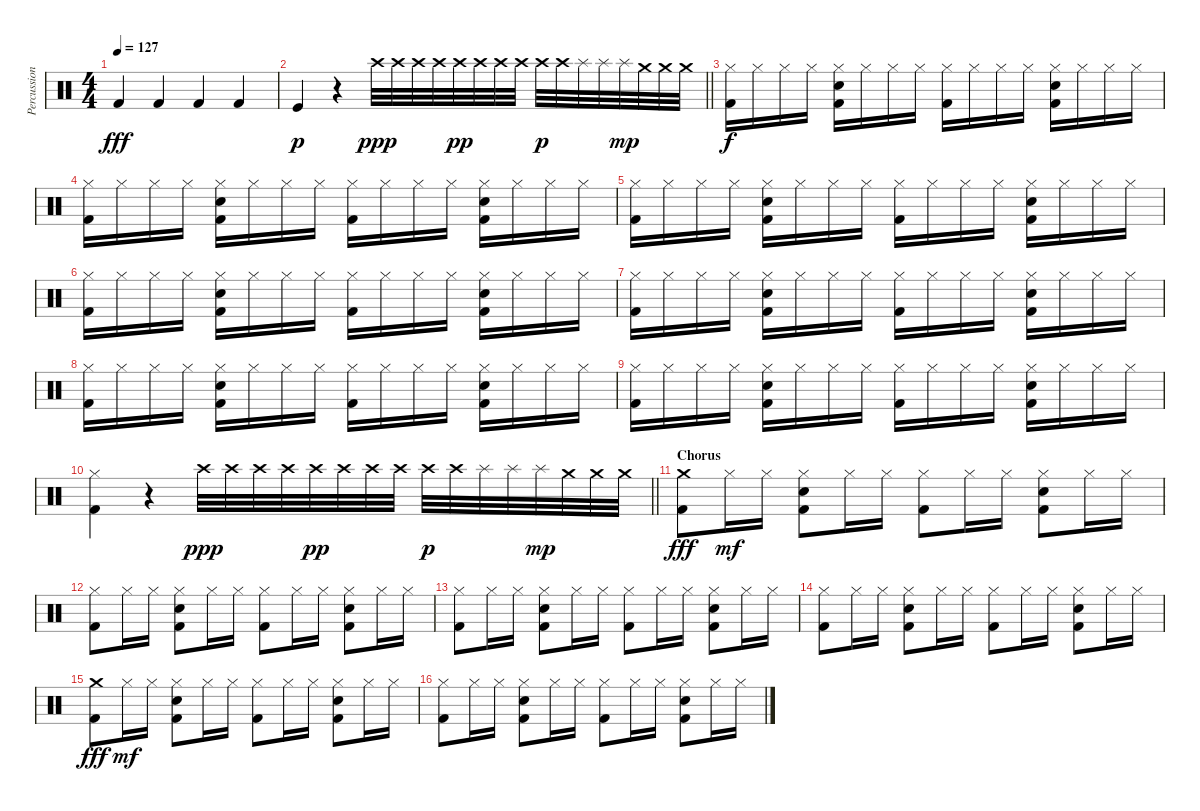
\track ("Percussion" "Percussion") {instrument percussion}
\staff {score}
\articulation defaults
\ts (4 4)
\tempo 127
\clef neutral
\ks c "Kick (hit) 2".4{dy fff} "Kick (hit) 2".4 "Kick (hit) 2".4 "Kick (hit) 2".4
|
\barLineRight lightlight "Kick (hit)".4{dy p}
r.4 "Crash high (hit)".32{dy ppp} "Crash high (hit)".32 "Crash high (hit)".32 "Crash high (hit)".32 "Crash high (hit)".32{dy pp} "Crash high (hit)".32 "Crash high (hit)".32 "Crash high (hit)".32 "Crash high (hit)".32{dy p} "Crash high (hit)".32 "Splash (hit)".32 "Splash (hit)".32 "Splash (hit)".32{dy mp} "Crash medium (hit)".32 "Crash medium (hit)".32 "Crash medium (hit)".32 |
("Hi-Hat (closed)" "Kick (hit) 2").16{dy f} "Hi-Hat (closed)".16 "Hi-Hat (closed)".16 "Hi-Hat (closed)".16 ("Hi-Hat (closed)" "Snare (hit) 2" "Kick (hit) 2").16 "Hi-Hat (closed)".16 "Hi-Hat (closed)".16 "Hi-Hat (closed)".16 ("Hi-Hat (closed)" "Kick (hit) 2").16 "Hi-Hat (closed)".16 "Hi-Hat (closed)".16 "Hi-Hat (closed)".16 ("Hi-Hat (closed)" "Snare (hit) 2" "Kick (hit) 2").16 "Hi-Hat (closed)".16 "Hi-Hat (closed)".16 "Hi-Hat (closed)".16 |
("Hi-Hat (closed)" "Kick (hit) 2").16 "Hi-Hat (closed)".16 "Hi-Hat (closed)".16 "Hi-Hat (closed)".16 ("Hi-Hat (closed)" "Snare (hit) 2" "Kick (hit) 2").16 "Hi-Hat (closed)".16 "Hi-Hat (closed)".16 "Hi-Hat (closed)".16 ("Hi-Hat (closed)" "Kick (hit) 2").16 "Hi-Hat (closed)".16 "Hi-Hat (closed)".16 "Hi-Hat (closed)".16 ("Hi-Hat (closed)" "Snare (hit) 2" "Kick (hit) 2").16 "Hi-Hat (closed)".16 "Hi-Hat (closed)".16 "Hi-Hat (closed)".16 |
("Hi-Hat (closed)" "Kick (hit) 2").16 "Hi-Hat (closed)".16 "Hi-Hat (closed)".16 "Hi-Hat (closed)".16 ("Hi-Hat (closed)" "Snare (hit) 2" "Kick (hit) 2").16 "Hi-Hat (closed)".16 "Hi-Hat (closed)".16 "Hi-Hat (closed)".16 ("Hi-Hat (closed)" "Kick (hit) 2").16 "Hi-Hat (closed)".16 "Hi-Hat (closed)".16 "Hi-Hat (closed)".16 ("Hi-Hat (closed)" "Snare (hit) 2" "Kick (hit) 2").16 "Hi-Hat (closed)".16 "Hi-Hat (closed)".16 "Hi-Hat (closed)".16 |
("Hi-Hat (closed)" "Kick (hit) 2").16 "Hi-Hat (closed)".16 "Hi-Hat (closed)".16 "Hi-Hat (closed)".16 ("Hi-Hat (closed)" "Snare (hit) 2" "Kick (hit) 2").16 "Hi-Hat (closed)".16 "Hi-Hat (closed)".16 "Hi-Hat (closed)".16 ("Hi-Hat (closed)" "Kick (hit) 2").16 "Hi-Hat (closed)".16 "Hi-Hat (closed)".16 "Hi-Hat (closed)".16 ("Hi-Hat (closed)" "Snare (hit) 2" "Kick (hit) 2").16 "Hi-Hat (closed)".16 "Hi-Hat (closed)".16 "Hi-Hat (closed)".16 |
("Hi-Hat (closed)" "Kick (hit) 2").16 "Hi-Hat (closed)".16 "Hi-Hat (closed)".16 "Hi-Hat (closed)".16 ("Hi-Hat (closed)" "Snare (hit) 2" "Kick (hit) 2").16 "Hi-Hat (closed)".16 "Hi-Hat (closed)".16 "Hi-Hat (closed)".16 ("Hi-Hat (closed)" "Kick (hit) 2").16 "Hi-Hat (closed)".16 "Hi-Hat (closed)".16 "Hi-Hat (closed)".16 ("Hi-Hat (closed)" "Snare (hit) 2" "Kick (hit) 2").16 "Hi-Hat (closed)".16 "Hi-Hat (closed)".16 "Hi-Hat (closed)".16 |
("Hi-Hat (closed)" "Kick (hit) 2").16 "Hi-Hat (closed)".16 "Hi-Hat (closed)".16 "Hi-Hat (closed)".16 ("Hi-Hat (closed)" "Snare (hit) 2" "Kick (hit) 2").16 "Hi-Hat (closed)".16 "Hi-Hat (closed)".16 "Hi-Hat (closed)".16 ("Hi-Hat (closed)" "Kick (hit) 2").16 "Hi-Hat (closed)".16 "Hi-Hat (closed)".16 "Hi-Hat (closed)".16 ("Hi-Hat (closed)" "Snare (hit) 2" "Kick (hit) 2").16 "Hi-Hat (closed)".16 "Hi-Hat (closed)".16 "Hi-Hat (closed)".16 |
("Hi-Hat (closed)" "Kick (hit) 2").16 "Hi-Hat (closed)".16 "Hi-Hat (closed)".16 "Hi-Hat (closed)".16 ("Hi-Hat (closed)" "Snare (hit) 2" "Kick (hit) 2").16 "Hi-Hat (closed)".16 "Hi-Hat (closed)".16 "Hi-Hat (closed)".16 ("Hi-Hat (closed)" "Kick (hit) 2").16 "Hi-Hat (closed)".16 "Hi-Hat (closed)".16 "Hi-Hat (closed)".16 ("Hi-Hat (closed)" "Snare (hit) 2" "Kick (hit) 2").16 "Hi-Hat (closed)".16 "Hi-Hat (closed)".16 "Hi-Hat (closed)".16 |
\barLineRight lightlight
("Hi-Hat (closed)" "Kick (hit) 2").4 r.4 "Crash high (hit)".32{dy ppp} "Crash high (hit)".32 "Crash high (hit)".32 "Crash high (hit)".32 "Crash high (hit)".32{dy pp} "Crash high (hit)".32 "Crash high (hit)".32 "Crash high (hit)".32 "Crash high (hit)".32{dy p} "Crash high (hit)".32 "Splash (hit)".32 "Splash (hit)".32 "Splash (hit)".32{dy mp} "Crash medium (hit)".32 "Crash medium (hit)".32 "Crash medium (hit)".32 |
\section ("" "Chorus")
("Crash medium (hit)" "Kick (hit) 2").8{dy fff} "Hi-Hat (closed)".16{dy mf} "Hi-Hat (closed)".16 ("Hi-Hat (closed)" "Snare (hit) 2" "Kick (hit) 2").8 "Hi-Hat (closed)".16 "Hi-Hat (closed)".16 ("Hi-Hat (closed)" "Kick (hit) 2").8 "Hi-Hat (closed)".16 "Hi-Hat (closed)".16 ("Hi-Hat (closed)" "Snare (hit) 2" "Kick (hit) 2").8 "Hi-Hat (closed)".16 "Hi-Hat (closed)".16 |
("Hi-Hat (closed)" "Kick (hit) 2").8 "Hi-Hat (closed)".16 "Hi-Hat (closed)".16 ("Hi-Hat (closed)" "Snare (hit) 2" "Kick (hit) 2").8 "Hi-Hat (closed)".16 "Hi-Hat (closed)".16 ("Hi-Hat (closed)" "Kick (hit) 2").8 "Hi-Hat (closed)".16 "Hi-Hat (closed)".16 ("Hi-Hat (closed)" "Snare (hit) 2" "Kick (hit) 2").8 "Hi-Hat (closed)".16 "Hi-Hat (closed)".16 |
("Hi-Hat (closed)" "Kick (hit) 2").8 "Hi-Hat (closed)".16 "Hi-Hat (closed)".16 ("Hi-Hat (closed)" "Snare (hit) 2" "Kick (hit) 2").8 "Hi-Hat (closed)".16 "Hi-Hat (closed)".16 ("Hi-Hat (closed)" "Kick (hit) 2").8 "Hi-Hat (closed)".16 "Hi-Hat (closed)".16 ("Hi-Hat (closed)" "Snare (hit) 2" "Kick (hit) 2").8 "Hi-Hat (closed)".16 "Hi-Hat (closed)".16 |
("Hi-Hat (closed)" "Kick (hit) 2").8 "Hi-Hat (closed)".16 "Hi-Hat (closed)".16 ("Hi-Hat (closed)" "Snare (hit) 2" "Kick (hit) 2").8 "Hi-Hat (closed)".16 "Hi-Hat (closed)".16 ("Hi-Hat (closed)" "Kick (hit) 2").8 "Hi-Hat (closed)".16 "Hi-Hat (closed)".16 ("Hi-Hat (closed)" "Snare (hit) 2" "Kick (hit) 2").8 "Hi-Hat (closed)".16 "Hi-Hat (closed)".16 |
("Crash medium (hit)" "Kick (hit) 2").8{dy fff} "Hi-Hat (closed)".16{dy mf} "Hi-Hat (closed)".16 ("Hi-Hat (closed)" "Snare (hit) 2" "Kick (hit) 2").8 "Hi-Hat (closed)".16 "Hi-Hat (closed)".16 ("Hi-Hat (closed)" "Kick (hit) 2").8 "Hi-Hat (closed)".16 "Hi-Hat (closed)".16 ("Hi-Hat (closed)" "Snare (hit) 2" "Kick (hit) 2").8 "Hi-Hat (closed)".16 "Hi-Hat (closed)".16 |
("Hi-Hat (closed)" "Kick (hit) 2").8 "Hi-Hat (closed)".16 "Hi-Hat (closed)".16 ("Hi-Hat (closed)" "Snare (hit) 2" "Kick (hit) 2").8 "Hi-Hat (closed)".16 "Hi-Hat (closed)".16 ("Hi-Hat (closed)" "Kick (hit) 2").8 "Hi-Hat (closed)".16 "Hi-Hat (closed)".16 ("Hi-Hat (closed)" "Snare (hit) 2" "Kick (hit) 2").8 "Hi-Hat (closed)".16 "Hi-Hat (closed)".16
